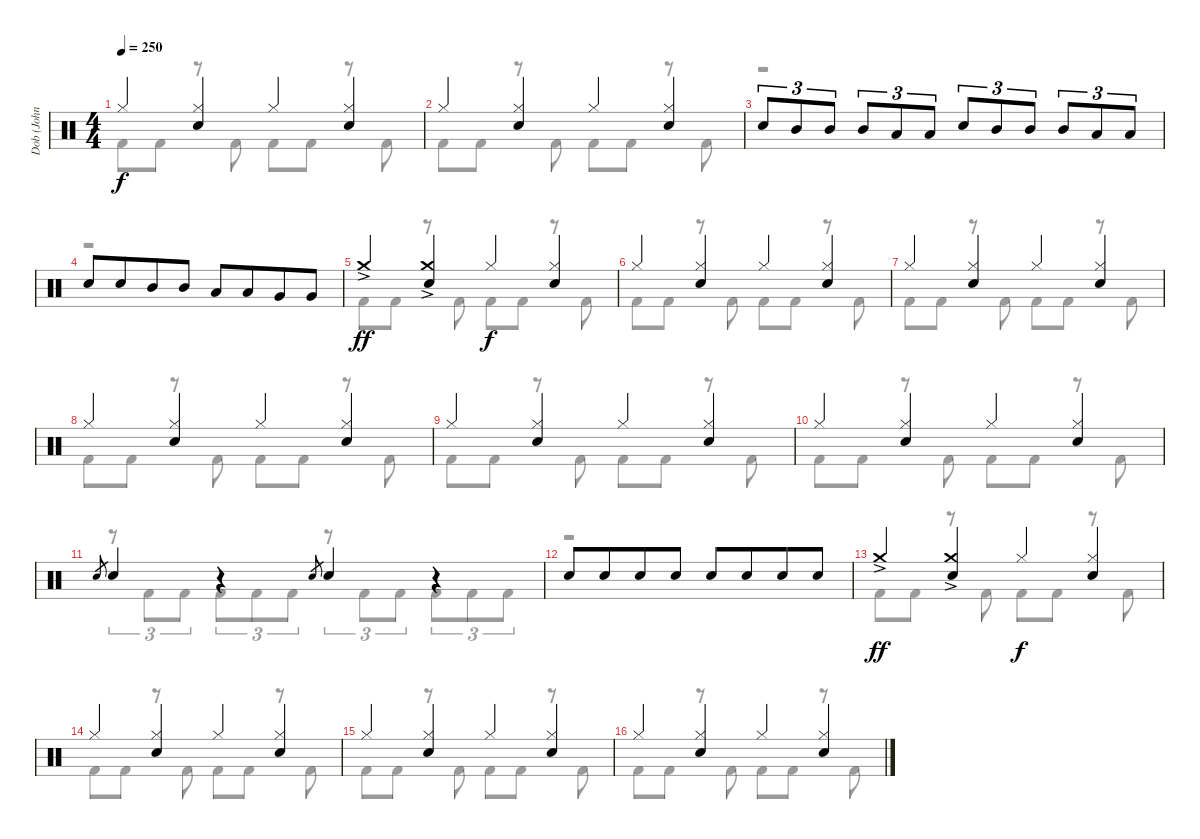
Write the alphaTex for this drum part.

\track ("Dob (John Macaluso)" "Dob (John ") {instrument percussion}
\staff {score}
\articulation defaults
\voice
\ts (4 4)
\tempo 250
\clef neutral
\ks c "Hi-Hat (closed)".4{dy f}
("Hi-Hat (closed)" "Electric Snare (hit)").4 "Hi-Hat (closed)".4 ("Hi-Hat (closed)" "Electric Snare (hit)").4 |
"Hi-Hat (closed)".4 ("Hi-Hat (closed)" "Electric Snare (hit)").4 "Hi-Hat (closed)".4 ("Hi-Hat (closed)" "Electric Snare (hit)").4 |
"Electric Snare (hit)".8{tu (3 2)} "Mid Tom (hit)".8{tu (3 2)} "Mid Tom (hit)".8{tu (3 2)} "Mid Tom (hit)".8{tu (3 2)} "Low Tom (hit)".8{tu (3 2)} "Low Tom (hit)".8{tu (3 2)} "Electric Snare (hit)".8{tu (3 2)} "Mid Tom (hit)".8{tu (3 2)} "Mid Tom (hit)".8{tu (3 2)} "Mid Tom (hit)".8{tu (3 2)} "Low Tom (hit)".8{tu (3 2)} "Low Tom (hit)".8{tu (3 2)} |
"Electric Snare (hit)".8 "Electric Snare (hit)".8{beam merge} "Mid Tom (hit)".8 "Mid Tom (hit)".8 "Low Tom (hit)".8 "Low Tom (hit)".8{beam merge} "Very Low Tom (hit)".8 "Very Low Tom (hit)".8 |
"Crash medium (hit)"{ac}.4{dy ff} ("Crash medium (hit)"{ac} "Electric Snare (hit)").4 "Hi-Hat (closed)".4{dy f} ("Hi-Hat (closed)" "Electric Snare (hit)").4 |
"Hi-Hat (closed)".4 ("Hi-Hat (closed)" "Electric Snare (hit)").4 "Hi-Hat (closed)".4 ("Hi-Hat (closed)" "Electric Snare (hit)").4 |
"Hi-Hat (closed)".4 ("Hi-Hat (closed)" "Electric Snare (hit)").4 "Hi-Hat (closed)".4 ("Hi-Hat (closed)" "Electric Snare (hit)").4 |
"Hi-Hat (closed)".4 ("Hi-Hat (closed)" "Electric Snare (hit)").4 "Hi-Hat (closed)".4 ("Hi-Hat (closed)" "Electric Snare (hit)").4 |
"Hi-Hat (closed)".4 ("Hi-Hat (closed)" "Electric Snare (hit)").4 "Hi-Hat (closed)".4 ("Hi-Hat (closed)" "Electric Snare (hit)").4 |
"Hi-Hat (closed)".4 ("Hi-Hat (closed)" "Electric Snare (hit)").4 "Hi-Hat (closed)".4 ("Hi-Hat (closed)" "Electric Snare (hit)").4 |
"Electric Snare (hit)".8{gr} "Electric Snare (hit)".4 r.4 "Electric Snare (hit)".8{gr} "Electric Snare (hit)".4 r.4 |
"Electric Snare (hit)".8 "Electric Snare (hit)".8{beam merge} "Electric Snare (hit)".8 "Electric Snare (hit)".8 "Electric Snare (hit)".8 "Electric Snare (hit)".8{beam merge} "Electric Snare (hit)".8 "Electric Snare (hit)".8 |
"Crash medium (hit)"{ac}.4{dy ff} ("Crash medium (hit)"{ac} "Electric Snare (hit)").4 "Hi-Hat (closed)".4{dy f} ("Hi-Hat (closed)" "Electric Snare (hit)").4 |
"Hi-Hat (closed)".4 ("Hi-Hat (closed)" "Electric Snare (hit)").4 "Hi-Hat (closed)".4 ("Hi-Hat (closed)" "Electric Snare (hit)").4 |
"Hi-Hat (closed)".4 ("Hi-Hat (closed)" "Electric Snare (hit)").4 "Hi-Hat (closed)".4 ("Hi-Hat (closed)" "Electric Snare (hit)").4 |
"Hi-Hat (closed)".4 ("Hi-Hat (closed)" "Electric Snare (hit)").4 "Hi-Hat (closed)".4 ("Hi-Hat (closed)" "Electric Snare (hit)").4
\voice
\clef neutral
\ottava regular
\simile none
\ks c "Kick (hit) 2".8{dy f} "Kick (hit) 2".8
r.8 "Kick (hit) 2".8 "Kick (hit) 2".8 "Kick (hit) 2".8 r.8 "Kick (hit) 2".8 |
"Kick (hit) 2".8 "Kick (hit) 2".8 r.8 "Kick (hit) 2".8 "Kick (hit) 2".8 "Kick (hit) 2".8 r.8 "Kick (hit) 2".8 |
r.1 |
r.1 |
"Kick (hit) 2".8 "Kick (hit) 2".8 r.8 "Kick (hit) 2".8 "Kick (hit) 2".8 "Kick (hit) 2".8 r.8 "Kick (hit) 2".8 |
"Kick (hit) 2".8 "Kick (hit) 2".8 r.8 "Kick (hit) 2".8 "Kick (hit) 2".8 "Kick (hit) 2".8 r.8 "Kick (hit) 2".8 |
"Kick (hit) 2".8 "Kick (hit) 2".8 r.8 "Kick (hit) 2".8 "Kick (hit) 2".8 "Kick (hit) 2".8 r.8 "Kick (hit) 2".8 |
"Kick (hit) 2".8 "Kick (hit) 2".8 r.8 "Kick (hit) 2".8 "Kick (hit) 2".8 "Kick (hit) 2".8 r.8 "Kick (hit) 2".8 |
"Kick (hit) 2".8 "Kick (hit) 2".8 r.8 "Kick (hit) 2".8 "Kick (hit) 2".8 "Kick (hit) 2".8 r.8 "Kick (hit) 2".8 |
"Kick (hit) 2".8 "Kick (hit) 2".8 r.8 "Kick (hit) 2".8 "Kick (hit) 2".8 "Kick (hit) 2".8 r.8 "Kick (hit) 2".8 |
r.8{tu (3 2)} "Kick (hit) 2".8{tu (3 2)} "Kick (hit) 2".8{tu (3 2)} "Kick (hit) 2".8{tu (3 2)} "Kick (hit) 2".8{tu (3 2)} "Kick (hit) 2".8{tu (3 2)} r.8{tu (3 2)} "Kick (hit) 2".8{tu (3 2)} "Kick (hit) 2".8{tu (3 2)} "Kick (hit) 2".8{tu (3 2)} "Kick (hit) 2".8{tu (3 2)} "Kick (hit) 2".8{tu (3 2)} |
r.1 |
"Kick (hit) 2".8 "Kick (hit) 2".8 r.8 "Kick (hit) 2".8 "Kick (hit) 2".8 "Kick (hit) 2".8 r.8 "Kick (hit) 2".8 |
"Kick (hit) 2".8 "Kick (hit) 2".8 r.8 "Kick (hit) 2".8 "Kick (hit) 2".8 "Kick (hit) 2".8 r.8 "Kick (hit) 2".8 |
"Kick (hit) 2".8 "Kick (hit) 2".8 r.8 "Kick (hit) 2".8 "Kick (hit) 2".8 "Kick (hit) 2".8 r.8 "Kick (hit) 2".8 |
"Kick (hit) 2".8 "Kick (hit) 2".8 r.8 "Kick (hit) 2".8 "Kick (hit) 2".8 "Kick (hit) 2".8 r.8 "Kick (hit) 2".8
